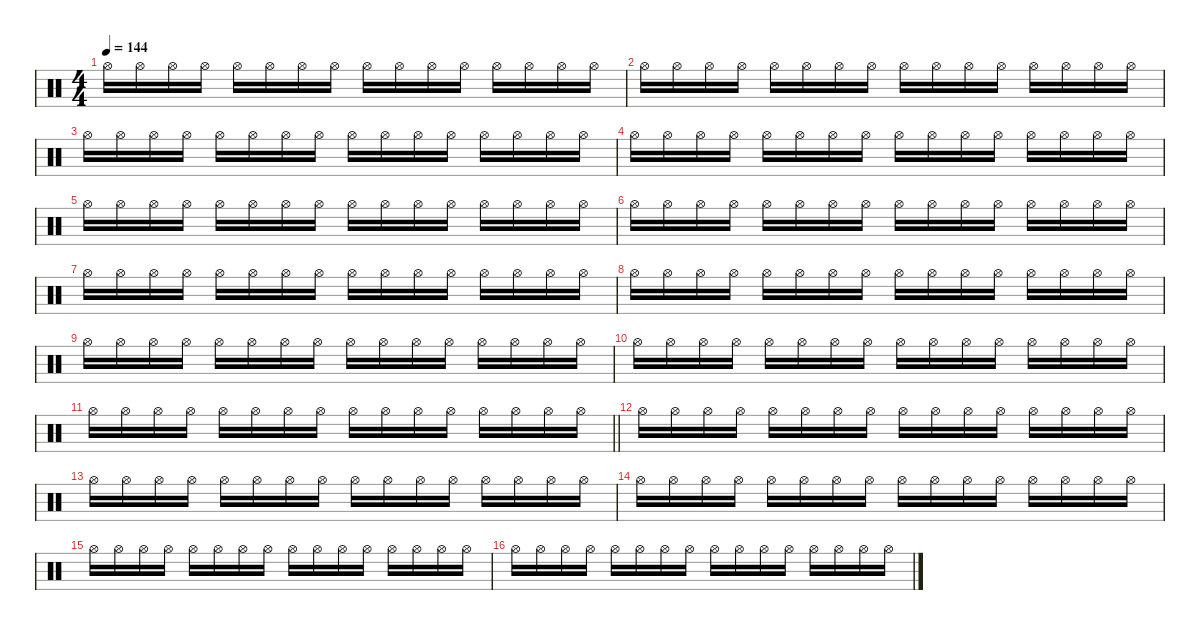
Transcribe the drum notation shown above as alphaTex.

\defaultSystemsLayout 4
\hideDynamics
\bracketExtendMode nobrackets
\singleTrackTrackNamePolicy hidden
\multiTrackTrackNamePolicy hidden
\firstSystemTrackNameMode fullname
\firstSystemTrackNameOrientation horizontal
\otherSystemsTrackNameOrientation horizontal
\track ("Bateria" "drm.") {instrument percussion}
\staff {score}
\articulation defaults
\ts (4 4)
\tempo 144
\clef neutral
\ks c "Hi-Hat (open)".16{dy f beam Down} "Hi-Hat (open)".16{beam Down} "Hi-Hat (open)".16{beam Down} "Hi-Hat (open)".16{beam Down} "Hi-Hat (open)".16{beam Down} "Hi-Hat (open)".16{beam Down} "Hi-Hat (open)".16{beam Down} "Hi-Hat (open)".16{beam Down} "Hi-Hat (open)".16{beam Down} "Hi-Hat (open)".16{beam Down} "Hi-Hat (open)".16{beam Down} "Hi-Hat (open)".16{beam Down} "Hi-Hat (open)".16{beam Down} "Hi-Hat (open)".16{beam Down} "Hi-Hat (open)".16{beam Down} "Hi-Hat (open)".16{beam Down}
|
"Hi-Hat (open)".16{beam Down} "Hi-Hat (open)".16{beam Down} "Hi-Hat (open)".16{beam Down} "Hi-Hat (open)".16{beam Down} "Hi-Hat (open)".16{beam Down} "Hi-Hat (open)".16{beam Down} "Hi-Hat (open)".16{beam Down} "Hi-Hat (open)".16{beam Down} "Hi-Hat (open)".16{beam Down} "Hi-Hat (open)".16{beam Down} "Hi-Hat (open)".16{beam Down} "Hi-Hat (open)".16{beam Down} "Hi-Hat (open)".16{beam Down} "Hi-Hat (open)".16{beam Down} "Hi-Hat (open)".16{beam Down} "Hi-Hat (open)".16{beam Down} |
"Hi-Hat (open)".16{beam Down} "Hi-Hat (open)".16{beam Down} "Hi-Hat (open)".16{beam Down} "Hi-Hat (open)".16{beam Down} "Hi-Hat (open)".16{beam Down} "Hi-Hat (open)".16{beam Down} "Hi-Hat (open)".16{beam Down} "Hi-Hat (open)".16{beam Down} "Hi-Hat (open)".16{beam Down} "Hi-Hat (open)".16{beam Down} "Hi-Hat (open)".16{beam Down} "Hi-Hat (open)".16{beam Down} "Hi-Hat (open)".16{beam Down} "Hi-Hat (open)".16{beam Down} "Hi-Hat (open)".16{beam Down} "Hi-Hat (open)".16{beam Down} |
"Hi-Hat (open)".16{beam Down} "Hi-Hat (open)".16{beam Down} "Hi-Hat (open)".16{beam Down} "Hi-Hat (open)".16{beam Down} "Hi-Hat (open)".16{beam Down} "Hi-Hat (open)".16{beam Down} "Hi-Hat (open)".16{beam Down} "Hi-Hat (open)".16{beam Down} "Hi-Hat (open)".16{beam Down} "Hi-Hat (open)".16{beam Down} "Hi-Hat (open)".16{beam Down} "Hi-Hat (open)".16{beam Down} "Hi-Hat (open)".16{beam Down} "Hi-Hat (open)".16{beam Down} "Hi-Hat (open)".16{beam Down} "Hi-Hat (open)".16{beam Down} |
"Hi-Hat (open)".16{beam Down} "Hi-Hat (open)".16{beam Down} "Hi-Hat (open)".16{beam Down} "Hi-Hat (open)".16{beam Down} "Hi-Hat (open)".16{beam Down} "Hi-Hat (open)".16{beam Down} "Hi-Hat (open)".16{beam Down} "Hi-Hat (open)".16{beam Down} "Hi-Hat (open)".16{beam Down} "Hi-Hat (open)".16{beam Down} "Hi-Hat (open)".16{beam Down} "Hi-Hat (open)".16{beam Down} "Hi-Hat (open)".16{beam Down} "Hi-Hat (open)".16{beam Down} "Hi-Hat (open)".16{beam Down} "Hi-Hat (open)".16{beam Down} |
"Hi-Hat (open)".16{beam Down} "Hi-Hat (open)".16{beam Down} "Hi-Hat (open)".16{beam Down} "Hi-Hat (open)".16{beam Down} "Hi-Hat (open)".16{beam Down} "Hi-Hat (open)".16{beam Down} "Hi-Hat (open)".16{beam Down} "Hi-Hat (open)".16{beam Down} "Hi-Hat (open)".16{beam Down} "Hi-Hat (open)".16{beam Down} "Hi-Hat (open)".16{beam Down} "Hi-Hat (open)".16{beam Down} "Hi-Hat (open)".16{beam Down} "Hi-Hat (open)".16{beam Down} "Hi-Hat (open)".16{beam Down} "Hi-Hat (open)".16{beam Down} |
"Hi-Hat (open)".16{beam Down} "Hi-Hat (open)".16{beam Down} "Hi-Hat (open)".16{beam Down} "Hi-Hat (open)".16{beam Down} "Hi-Hat (open)".16{beam Down} "Hi-Hat (open)".16{beam Down} "Hi-Hat (open)".16{beam Down} "Hi-Hat (open)".16{beam Down} "Hi-Hat (open)".16{beam Down} "Hi-Hat (open)".16{beam Down} "Hi-Hat (open)".16{beam Down} "Hi-Hat (open)".16{beam Down} "Hi-Hat (open)".16{beam Down} "Hi-Hat (open)".16{beam Down} "Hi-Hat (open)".16{beam Down} "Hi-Hat (open)".16{beam Down} |
"Hi-Hat (open)".16{beam Down} "Hi-Hat (open)".16{beam Down} "Hi-Hat (open)".16{beam Down} "Hi-Hat (open)".16{beam Down} "Hi-Hat (open)".16{beam Down} "Hi-Hat (open)".16{beam Down} "Hi-Hat (open)".16{beam Down} "Hi-Hat (open)".16{beam Down} "Hi-Hat (open)".16{beam Down} "Hi-Hat (open)".16{beam Down} "Hi-Hat (open)".16{beam Down} "Hi-Hat (open)".16{beam Down} "Hi-Hat (open)".16{beam Down} "Hi-Hat (open)".16{beam Down} "Hi-Hat (open)".16{beam Down} "Hi-Hat (open)".16{beam Down} |
"Hi-Hat (open)".16{beam Down} "Hi-Hat (open)".16{beam Down} "Hi-Hat (open)".16{beam Down} "Hi-Hat (open)".16{beam Down} "Hi-Hat (open)".16{beam Down} "Hi-Hat (open)".16{beam Down} "Hi-Hat (open)".16{beam Down} "Hi-Hat (open)".16{beam Down} "Hi-Hat (open)".16{beam Down} "Hi-Hat (open)".16{beam Down} "Hi-Hat (open)".16{beam Down} "Hi-Hat (open)".16{beam Down} "Hi-Hat (open)".16{beam Down} "Hi-Hat (open)".16{beam Down} "Hi-Hat (open)".16{beam Down} "Hi-Hat (open)".16{beam Down} |
"Hi-Hat (open)".16{beam Down} "Hi-Hat (open)".16{beam Down} "Hi-Hat (open)".16{beam Down} "Hi-Hat (open)".16{beam Down} "Hi-Hat (open)".16{beam Down} "Hi-Hat (open)".16{beam Down} "Hi-Hat (open)".16{beam Down} "Hi-Hat (open)".16{beam Down} "Hi-Hat (open)".16{beam Down} "Hi-Hat (open)".16{beam Down} "Hi-Hat (open)".16{beam Down} "Hi-Hat (open)".16{beam Down} "Hi-Hat (open)".16{beam Down} "Hi-Hat (open)".16{beam Down} "Hi-Hat (open)".16{beam Down} "Hi-Hat (open)".16{beam Down} |
\barLineRight lightlight "Hi-Hat (open)".16{beam Down} "Hi-Hat (open)".16{beam Down} "Hi-Hat (open)".16{beam Down} "Hi-Hat (open)".16{beam Down} "Hi-Hat (open)".16{beam Down} "Hi-Hat (open)".16{beam Down} "Hi-Hat (open)".16{beam Down} "Hi-Hat (open)".16{beam Down} "Hi-Hat (open)".16{beam Down} "Hi-Hat (open)".16{beam Down} "Hi-Hat (open)".16{beam Down} "Hi-Hat (open)".16{beam Down} "Hi-Hat (open)".16{beam Down} "Hi-Hat (open)".16{beam Down} "Hi-Hat (open)".16{beam Down} "Hi-Hat (open)".16{beam Down}
|
"Hi-Hat (open)".16{beam Down} "Hi-Hat (open)".16{beam Down} "Hi-Hat (open)".16{beam Down} "Hi-Hat (open)".16{beam Down} "Hi-Hat (open)".16{beam Down} "Hi-Hat (open)".16{beam Down} "Hi-Hat (open)".16{beam Down} "Hi-Hat (open)".16{beam Down} "Hi-Hat (open)".16{beam Down} "Hi-Hat (open)".16{beam Down} "Hi-Hat (open)".16{beam Down} "Hi-Hat (open)".16{beam Down} "Hi-Hat (open)".16{beam Down} "Hi-Hat (open)".16{beam Down} "Hi-Hat (open)".16{beam Down} "Hi-Hat (open)".16{beam Down} |
"Hi-Hat (open)".16{beam Down} "Hi-Hat (open)".16{beam Down} "Hi-Hat (open)".16{beam Down} "Hi-Hat (open)".16{beam Down} "Hi-Hat (open)".16{beam Down} "Hi-Hat (open)".16{beam Down} "Hi-Hat (open)".16{beam Down} "Hi-Hat (open)".16{beam Down} "Hi-Hat (open)".16{beam Down} "Hi-Hat (open)".16{beam Down} "Hi-Hat (open)".16{beam Down} "Hi-Hat (open)".16{beam Down} "Hi-Hat (open)".16{beam Down} "Hi-Hat (open)".16{beam Down} "Hi-Hat (open)".16{beam Down} "Hi-Hat (open)".16{beam Down} |
"Hi-Hat (open)".16{beam Down} "Hi-Hat (open)".16{beam Down} "Hi-Hat (open)".16{beam Down} "Hi-Hat (open)".16{beam Down} "Hi-Hat (open)".16{beam Down} "Hi-Hat (open)".16{beam Down} "Hi-Hat (open)".16{beam Down} "Hi-Hat (open)".16{beam Down} "Hi-Hat (open)".16{beam Down} "Hi-Hat (open)".16{beam Down} "Hi-Hat (open)".16{beam Down} "Hi-Hat (open)".16{beam Down} "Hi-Hat (open)".16{beam Down} "Hi-Hat (open)".16{beam Down} "Hi-Hat (open)".16{beam Down} "Hi-Hat (open)".16{beam Down} |
"Hi-Hat (open)".16{beam Down} "Hi-Hat (open)".16{beam Down} "Hi-Hat (open)".16{beam Down} "Hi-Hat (open)".16{beam Down} "Hi-Hat (open)".16{beam Down} "Hi-Hat (open)".16{beam Down} "Hi-Hat (open)".16{beam Down} "Hi-Hat (open)".16{beam Down} "Hi-Hat (open)".16{beam Down} "Hi-Hat (open)".16{beam Down} "Hi-Hat (open)".16{beam Down} "Hi-Hat (open)".16{beam Down} "Hi-Hat (open)".16{beam Down} "Hi-Hat (open)".16{beam Down} "Hi-Hat (open)".16{beam Down} "Hi-Hat (open)".16{beam Down} |
"Hi-Hat (open)".16{beam Down} "Hi-Hat (open)".16{beam Down} "Hi-Hat (open)".16{beam Down} "Hi-Hat (open)".16{beam Down} "Hi-Hat (open)".16{beam Down} "Hi-Hat (open)".16{beam Down} "Hi-Hat (open)".16{beam Down} "Hi-Hat (open)".16{beam Down} "Hi-Hat (open)".16{beam Down} "Hi-Hat (open)".16{beam Down} "Hi-Hat (open)".16{beam Down} "Hi-Hat (open)".16{beam Down} "Hi-Hat (open)".16{beam Down} "Hi-Hat (open)".16{beam Down} "Hi-Hat (open)".16{beam Down} "Hi-Hat (open)".16{beam Down}
